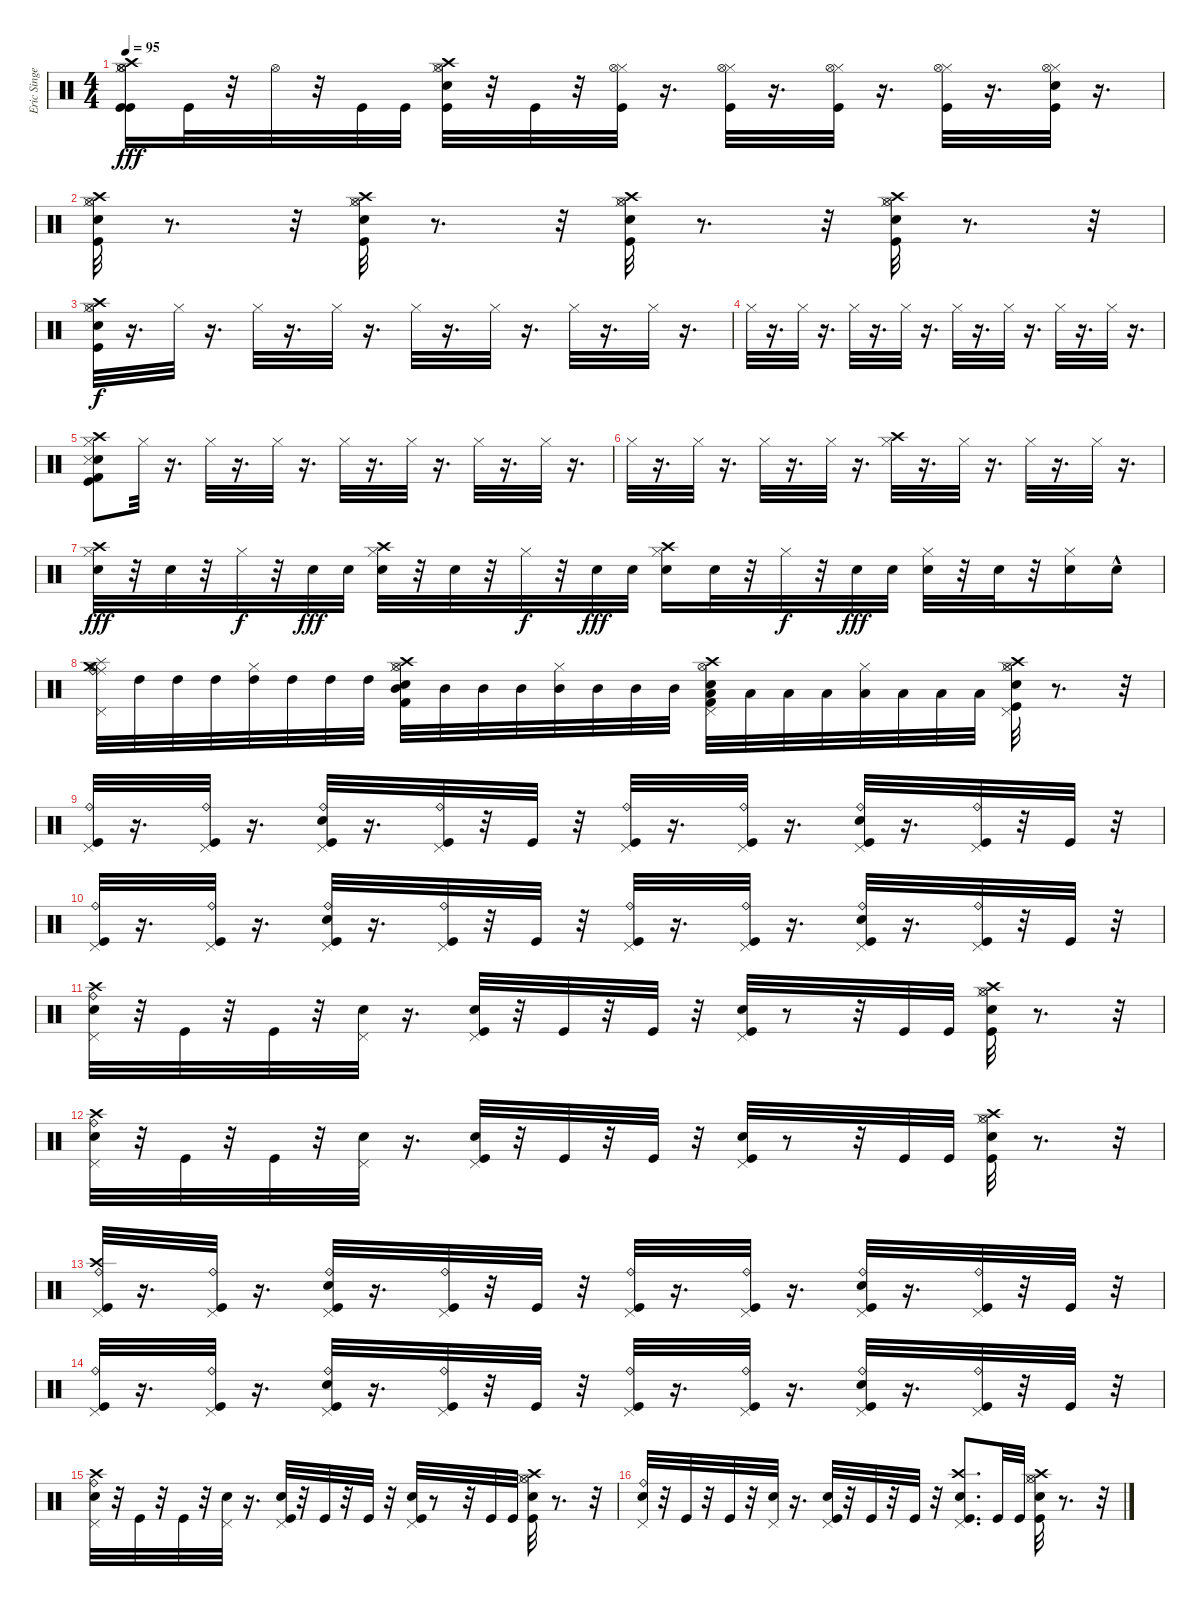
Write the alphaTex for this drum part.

\track ("Eric Singer" "Eric Singe") {instrument percussion}
\staff {score}
\articulation defaults
\ts (4 4)
\tempo 95
\clef neutral
\ks c
("Hi-Hat (open)" "Hi-Hat (closed)" "Kick (hit)" "Crash high (hit)" "Hi-Hat (open)" "Kick (hit)").16{dy fff} "Kick (hit)".32 r.32 "Hi-Hat (open)".32 r.32 "Kick (hit)".32 "Kick (hit)".32 ("Kick (hit)" "Hi-Hat (open)" "Hi-Hat (closed)" "Crash high (hit)" "Snare (hit) 2").32 r.32 "Kick (hit)".32 r.32 ("Hi-Hat (closed)" "Kick (hit)" "Hi-Hat (open)").32 r.16{d} ("Hi-Hat (closed)" "Kick (hit)" "Hi-Hat (open)").32 r.16{d} ("Hi-Hat (closed)" "Kick (hit)" "Hi-Hat (open)").32 r.16{d} ("Kick (hit)" "Hi-Hat (closed)" "Hi-Hat (open)").32 r.16{d} ("Hi-Hat (closed)" "Kick (hit)" "Snare (hit) 2" "Hi-Hat (open)").32 r.16{d} |
("Snare (hit) 2" "Crash high (hit)" "Kick (hit)" "Hi-Hat (closed)" "Hi-Hat (open)").32 r.8{d} r.32 ("Kick (hit)" "Snare (hit) 2" "Hi-Hat (closed)" "Crash high (hit)" "Hi-Hat (open)").32 r.8{d} r.32 ("Kick (hit)" "Snare (hit) 2" "Hi-Hat (closed)" "Hi-Hat (open)" "Crash high (hit)").32 r.8{d} r.32 ("Kick (hit)" "Snare (hit) 2" "Hi-Hat (closed)" "Hi-Hat (open)" "Crash high (hit)").32 r.8{d} r.32 |
("Kick (hit)" "Snare (hit) 2" "Crash high (hit)" "Hi-Hat (open)" "Hi-Hat (closed)").32{dy f} r.16{d} "Hi-Hat (closed)".32 r.16{d} "Hi-Hat (closed)".32 r.16{d} "Hi-Hat (closed)".32 r.16{d} "Hi-Hat (closed)".32 r.16{d} "Hi-Hat (closed)".32 r.16{d} "Hi-Hat (closed)".32 r.16{d} "Hi-Hat (closed)".32 r.16{d} |
"Hi-Hat (closed)".32 r.16{d} "Hi-Hat (closed)".32 r.16{d} "Hi-Hat (closed)".32 r.16{d} "Hi-Hat (closed)".32 r.16{d} "Hi-Hat (closed)".32 r.16{d} "Hi-Hat (closed)".32 r.16{d} "Hi-Hat (closed)".32 r.16{d} "Hi-Hat (closed)".32 r.16{d} |
("Snare (hit) 2" "Kick (hit) 2" "Kick (hit)" "Snare (side stick) 3" "Crash high (hit)" "Hi-Hat (closed)").8 "Hi-Hat (closed)".32 r.16{d} "Hi-Hat (closed)".32 r.16{d} "Hi-Hat (closed)".32 r.16{d} "Hi-Hat (closed)".32 r.16{d} "Hi-Hat (closed)".32 r.16{d} "Hi-Hat (closed)".32 r.16{d} "Hi-Hat (closed)".32 r.16{d} |
"Hi-Hat (closed)".32 r.16{d} "Hi-Hat (closed)".32 r.16{d} "Hi-Hat (closed)".32 r.16{d} "Hi-Hat (closed)".32 r.16{d} ("Crash high (hit)" "Hi-Hat (closed)").32 r.16{d} "Hi-Hat (closed)".32 r.16{d} "Hi-Hat (closed)".32 r.16{d} "Hi-Hat (closed)".32 r.16{d} |
("Crash high (hit)" "Snare (hit) 2" "Hi-Hat (closed)").32{dy fff} r.32 "Snare (hit) 2".32 r.32 "Hi-Hat (closed)".32{dy f} r.32 "Snare (hit) 2".32{dy fff} "Snare (hit) 2".32 ("Crash high (hit)" "Snare (hit) 2" "Hi-Hat (closed)").32 r.32 "Snare (hit) 2".32 r.32 "Hi-Hat (closed)".32{dy f} r.32 "Snare (hit) 2".32{dy fff} "Snare (hit) 2".32 ("Crash high (hit)" "Snare (hit) 2" "Hi-Hat (closed)").16 "Snare (hit) 2".32 r.32 "Hi-Hat (closed)".32{dy f} r.32 "Snare (hit) 2".32{dy fff} "Snare (hit) 2".32 ("Snare (hit) 2" "Hi-Hat (closed)").32 r.32 "Snare (hit) 2".32 r.32 ("Snare (hit) 2" "Hi-Hat (closed)").16 "Snare (hit) 2"{hac}.16 |
("Crash medium (hit)" "Splash (hit)" "Ride (middle)" "Ride (bell)" "Hi-Hat (open)" "Pedal Hi-Hat (hit)").32 "High Tom (hit)".32 "High Tom (hit)".32 "High Tom (hit)".32 ("High Tom (hit)" "Hi-Hat (closed)").32 "High Tom (hit)".32 "High Tom (hit)".32 "High Tom (hit)".32 ("Hi-Hat (open)" "Kick (hit) 2" "Snare (hit) 2" "Crash high (hit)" "Mid Tom (hit)" "Hi-Hat (closed)").32 "Mid Tom (hit)".32 "Mid Tom (hit)".32 "Mid Tom (hit)".32 ("Mid Tom (hit)" "Hi-Hat (closed)").32 "Mid Tom (hit)".32 "Mid Tom (hit)".32 "Mid Tom (hit)".32 ("Pedal Hi-Hat (hit)" "Hi-Hat (open)" "Kick (hit) 2" "Snare (hit) 2" "Crash high (hit)" "Low Tom (hit)").32 "Low Tom (hit)".32 "Low Tom (hit)".32 "Low Tom (hit)".32 ("Low Tom (hit)" "Hi-Hat (closed)").32 "Low Tom (hit)".32 "Low Tom (hit)".32 "Low Tom (hit)".32 ("Hi-Hat (open)" "Snare (hit) 2" "Hi-Hat (closed)" "Kick (hit)" "Crash high (hit)" "Pedal Hi-Hat (hit)").32 r.8{d} r.32 |
("Pedal Hi-Hat (hit)" "Kick (hit)" "Ride (bell)").32 r.16{d} ("Pedal Hi-Hat (hit)" "Kick (hit)" "Ride (bell)").32 r.16{d} ("Pedal Hi-Hat (hit)" "Kick (hit)" "Snare (hit) 2" "Ride (bell)").32 r.16{d} ("Pedal Hi-Hat (hit)" "Kick (hit)" "Ride (bell)").32 r.32 "Kick (hit)".32 r.32 ("Pedal Hi-Hat (hit)" "Kick (hit)" "Ride (bell)").32 r.16{d} ("Kick (hit)" "Pedal Hi-Hat (hit)" "Ride (bell)").32 r.16{d} ("Kick (hit)" "Snare (hit) 2" "Pedal Hi-Hat (hit)" "Ride (bell)").32 r.16{d} ("Kick (hit)" "Pedal Hi-Hat (hit)" "Ride (bell)").32 r.32 "Kick (hit)".32 r.32 |
("Kick (hit)" "Pedal Hi-Hat (hit)" "Ride (bell)").32 r.16{d} ("Kick (hit)" "Pedal Hi-Hat (hit)" "Ride (bell)").32 r.16{d} ("Kick (hit)" "Snare (hit) 2" "Pedal Hi-Hat (hit)" "Ride (bell)").32 r.16{d} ("Kick (hit)" "Pedal Hi-Hat (hit)" "Ride (bell)").32 r.32 "Kick (hit)".32 r.32 ("Kick (hit)" "Pedal Hi-Hat (hit)" "Ride (bell)").32 r.16{d} ("Kick (hit)" "Pedal Hi-Hat (hit)" "Ride (bell)").32 r.16{d} ("Kick (hit)" "Snare (hit) 2" "Pedal Hi-Hat (hit)" "Ride (bell)").32 r.16{d} ("Kick (hit)" "Pedal Hi-Hat (hit)" "Ride (bell)").32 r.32 "Kick (hit)".32 r.32 |
("Crash high (hit)" "Pedal Hi-Hat (hit)" "Snare (hit) 2" "Ride (bell)").32 r.32 "Kick (hit)".32 r.32 "Kick (hit)".32 r.32 ("Pedal Hi-Hat (hit)" "Snare (hit) 2").32 r.16{d} ("Kick (hit)" "Snare (hit) 2" "Pedal Hi-Hat (hit)").32 r.32 "Kick (hit)".32 r.32 "Kick (hit)".32 r.32 ("Kick (hit)" "Snare (hit) 2" "Pedal Hi-Hat (hit)").32 r.8 r.32 "Kick (hit)".32 "Kick (hit)".32 ("Hi-Hat (closed)" "Hi-Hat (open)" "Snare (hit) 2" "Kick (hit)" "Crash high (hit)").32 r.8{d} r.32 |
("Crash high (hit)" "Pedal Hi-Hat (hit)" "Snare (hit) 2" "Ride (bell)").32 r.32 "Kick (hit)".32 r.32 "Kick (hit)".32 r.32 ("Pedal Hi-Hat (hit)" "Snare (hit) 2").32 r.16{d} ("Kick (hit)" "Snare (hit) 2" "Pedal Hi-Hat (hit)").32 r.32 "Kick (hit)".32 r.32 "Kick (hit)".32 r.32 ("Kick (hit)" "Snare (hit) 2" "Pedal Hi-Hat (hit)").32 r.8 r.32 "Kick (hit)".32 "Kick (hit)".32 ("Hi-Hat (closed)" "Hi-Hat (open)" "Snare (hit) 2" "Kick (hit)" "Crash high (hit)").32 r.8{d} r.32 |
("Pedal Hi-Hat (hit)" "Kick (hit)" "Ride (bell)" "Crash high (hit)").32 r.16{d} ("Pedal Hi-Hat (hit)" "Kick (hit)" "Ride (bell)").32 r.16{d} ("Pedal Hi-Hat (hit)" "Kick (hit)" "Snare (hit) 2" "Ride (bell)").32 r.16{d} ("Pedal Hi-Hat (hit)" "Kick (hit)" "Ride (bell)").32 r.32 "Kick (hit)".32 r.32 ("Pedal Hi-Hat (hit)" "Kick (hit)" "Ride (bell)").32 r.16{d} ("Kick (hit)" "Pedal Hi-Hat (hit)" "Ride (bell)").32 r.16{d} ("Kick (hit)" "Snare (hit) 2" "Pedal Hi-Hat (hit)" "Ride (bell)").32 r.16{d} ("Kick (hit)" "Pedal Hi-Hat (hit)" "Ride (bell)").32 r.32 "Kick (hit)".32 r.32 |
("Kick (hit)" "Pedal Hi-Hat (hit)" "Ride (bell)").32 r.16{d} ("Kick (hit)" "Pedal Hi-Hat (hit)" "Ride (bell)").32 r.16{d} ("Kick (hit)" "Snare (hit) 2" "Pedal Hi-Hat (hit)" "Ride (bell)").32 r.16{d} ("Kick (hit)" "Pedal Hi-Hat (hit)" "Ride (bell)").32 r.32 "Kick (hit)".32 r.32 ("Kick (hit)" "Pedal Hi-Hat (hit)" "Ride (bell)").32 r.16{d} ("Kick (hit)" "Pedal Hi-Hat (hit)" "Ride (bell)").32 r.16{d} ("Kick (hit)" "Snare (hit) 2" "Pedal Hi-Hat (hit)" "Ride (bell)").32 r.16{d} ("Kick (hit)" "Pedal Hi-Hat (hit)" "Ride (bell)").32 r.32 "Kick (hit)".32 r.32 |
("Pedal Hi-Hat (hit)" "Snare (hit) 2" "Ride (bell)" "Crash high (hit)").32 r.32 "Kick (hit)".32 r.32 "Kick (hit)".32 r.32 ("Pedal Hi-Hat (hit)" "Snare (hit) 2").32 r.16{d} ("Kick (hit)" "Snare (hit) 2" "Pedal Hi-Hat (hit)").32 r.32 "Kick (hit)".32 r.32 "Kick (hit)".32 r.32 ("Kick (hit)" "Snare (hit) 2" "Pedal Hi-Hat (hit)").32 r.8 r.32 "Kick (hit)".32 "Kick (hit)".32 ("Hi-Hat (closed)" "Hi-Hat (open)" "Snare (hit) 2" "Kick (hit)" "Crash high (hit)").32 r.8{d} r.32 |
("Pedal Hi-Hat (hit)" "Snare (hit) 2" "Ride (bell)").32 r.32 "Kick (hit)".32 r.32 "Kick (hit)".32 r.32 ("Pedal Hi-Hat (hit)" "Snare (hit) 2").32 r.16{d} ("Kick (hit)" "Snare (hit) 2" "Pedal Hi-Hat (hit)").32 r.32 "Kick (hit)".32 r.32 "Kick (hit)".32 r.32 ("Kick (hit)" "Snare (hit) 2" "Pedal Hi-Hat (hit)" "Crash high (hit)").8{d} "Kick (hit)".32 "Kick (hit)".32 ("Hi-Hat (closed)" "Hi-Hat (open)" "Snare (hit) 2" "Kick (hit)" "Crash high (hit)").32 r.8{d} r.32
